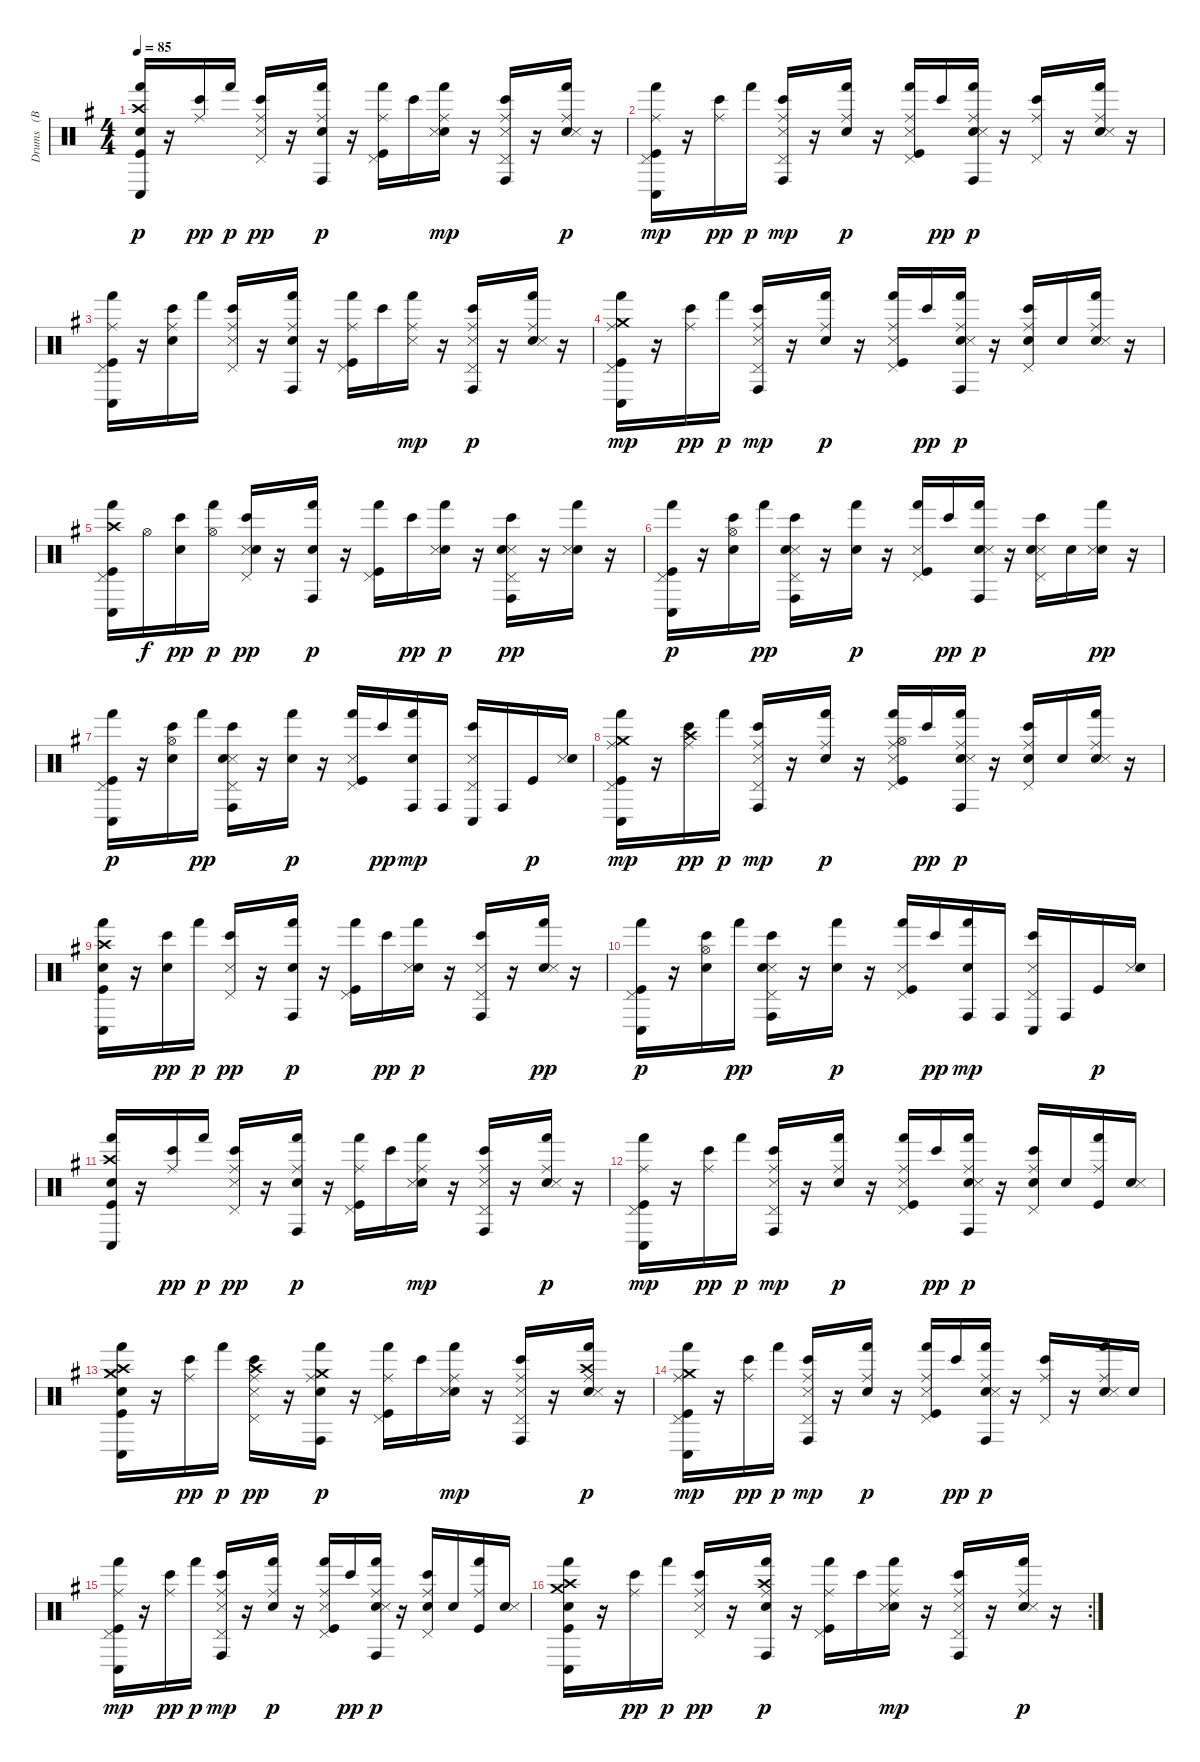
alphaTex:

\track ("Drums   (BB)" "Drums   (B") {instrument percussion}
\staff {score}
\articulation defaults
\ts (4 4)
\tempo 85
\clef neutral
\ks eminor
("Kick (hit)" "Snare (hit) 2" "Crash high (hit)" "Hand (hit)" "Conga low (hit)").16{dy p} r.16 ("Ride (middle)" "Bongo High (hit)").16{dy pp} "Hand (hit)".16{dy p} ("Pedal Hi-Hat (hit)" "Snare (side stick) 3" "Ride (middle)" "Bongo High (hit)").16{dy pp} r.16 ("Snare (hit) 2" "Ride (middle)" "Hand (hit)" "Conga high (hit)").16{dy p} r.16 ("Kick (hit)" "Pedal Hi-Hat (hit)" "Ride (middle)" "Hand (hit)").16 "Bongo High (hit)".16 ("Snare (hit) 2" "Snare (side stick) 3" "Ride (middle)" "Hand (hit)").16{dy mp} r.16 ("Pedal Hi-Hat (hit)" "Snare (side stick) 3" "Ride (middle)" "Bongo High (hit)" "Conga high (hit)").16 r.16 ("Snare (hit) 2" "Snare (side stick) 3" "Ride (middle)" "Hand (hit)").16{dy p} r.16 |
("Kick (hit)" "Pedal Hi-Hat (hit)" "Ride (middle)" "Hand (hit)" "Conga low (hit)").16{dy mp} r.16 ("Ride (middle)" "Bongo High (hit)").16{dy pp} "Hand (hit)".16{dy p} ("Pedal Hi-Hat (hit)" "Snare (side stick) 3" "Ride (middle)" "Bongo High (hit)" "Conga high (hit)").16{dy mp} r.16 ("Snare (hit) 2" "Ride (middle)" "Hand (hit)").16{dy p} r.16 ("Kick (hit)" "Pedal Hi-Hat (hit)" "Snare (side stick) 3" "Ride (middle)" "Hand (hit)").16 "Bongo High (hit)".16{dy pp} ("Snare (hit) 2" "Snare (side stick) 3" "Ride (middle)" "Hand (hit)" "Conga high (hit)").16{dy p} r.16 ("Pedal Hi-Hat (hit)" "Ride (middle)" "Bongo High (hit)").16 r.16 ("Snare (hit) 2" "Snare (side stick) 3" "Ride (middle)" "Hand (hit)").16 r.16 |
("Kick (hit)" "Pedal Hi-Hat (hit)" "Ride (middle)" "Hand (hit)" "Conga low (hit)").16 r.16 ("Snare (hit) 2" "Ride (middle)" "Bongo High (hit)").16 "Hand (hit)".16 ("Pedal Hi-Hat (hit)" "Snare (side stick) 3" "Ride (middle)" "Bongo High (hit)").16 r.16 ("Snare (hit) 2" "Ride (middle)" "Hand (hit)" "Conga high (hit)").16 r.16 ("Kick (hit)" "Pedal Hi-Hat (hit)" "Ride (middle)" "Hand (hit)").16 "Bongo High (hit)".16 ("Snare (side stick) 3" "Ride (middle)" "Hand (hit)").16{dy mp} r.16 ("Pedal Hi-Hat (hit)" "Snare (side stick) 3" "Ride (middle)" "Bongo High (hit)" "Conga high (hit)").16{dy p} r.16 ("Snare (hit) 2" "Snare (side stick) 3" "Ride (middle)" "Hand (hit)").16 r.16 |
("Kick (hit)" "Pedal Hi-Hat (hit)" "Ride (middle)" "Hand (hit)" "Conga low (hit)" "Crash medium (hit)").16{dy mp} r.16 ("Ride (middle)" "Bongo High (hit)").16{dy pp} "Hand (hit)".16{dy p} ("Pedal Hi-Hat (hit)" "Snare (side stick) 3" "Ride (middle)" "Bongo High (hit)" "Conga high (hit)").16{dy mp} r.16 ("Snare (hit) 2" "Ride (middle)" "Hand (hit)").16{dy p} r.16 ("Kick (hit)" "Pedal Hi-Hat (hit)" "Snare (side stick) 3" "Ride (middle)" "Hand (hit)").16 "Bongo High (hit)".16{dy pp} ("Snare (hit) 2" "Snare (side stick) 3" "Ride (middle)" "Hand (hit)" "Conga high (hit)").16{dy p} r.16 ("Snare (hit) 2" "Pedal Hi-Hat (hit)" "Ride (middle)" "Bongo High (hit)").16 "Snare (hit) 2".16 ("Snare (hit) 2" "Snare (side stick) 3" "Ride (middle)" "Hand (hit)").16 r.16 |
("Kick (hit)" "Pedal Hi-Hat (hit)" "Hand (hit)" "Conga low (hit)" "Crash high (hit)").16 "Hi-Hat (open)".16{dy f} ("Snare (hit) 2" "Bongo High (hit)").16{dy pp} ("Hand (hit)" "Hi-Hat (open)").16{dy p} ("Pedal Hi-Hat (hit)" "Snare (side stick) 3" "Bongo High (hit)" "Hand Clap (hit)").16{dy pp} r.16 ("Snare (hit) 2" "Hand (hit)" "Conga high (hit)").16{dy p} r.16 ("Kick (hit)" "Pedal Hi-Hat (hit)" "Hand (hit)").16 "Bongo High (hit)".16{dy pp} ("Snare (hit) 2" "Snare (side stick) 3" "Hand (hit)").16{dy p} r.16 ("Pedal Hi-Hat (hit)" "Snare (side stick) 3" "Bongo High (hit)" "Conga high (hit)" "Hand Clap (hit)").16{dy pp} r.16 ("Snare (hit) 2" "Snare (side stick) 3" "Hand (hit)").16 r.16 |
("Kick (hit)" "Pedal Hi-Hat (hit)" "Hand (hit)" "Conga low (hit)").16{dy p} r.16 ("Snare (hit) 2" "Hi-Hat (open)" "Bongo High (hit)").16 "Hand (hit)".16{dy pp} ("Pedal Hi-Hat (hit)" "Snare (side stick) 3" "Bongo High (hit)" "Conga high (hit)" "Hand Clap (hit)").16 r.16 ("Snare (hit) 2" "Hand (hit)").16{dy p} r.16 ("Kick (hit)" "Pedal Hi-Hat (hit)" "Snare (side stick) 3" "Hand (hit)").16 "Bongo High (hit)".16{dy pp} ("Snare (hit) 2" "Snare (side stick) 3" "Hand (hit)" "Conga high (hit)").16{dy p} r.16 ("Pedal Hi-Hat (hit)" "Snare (side stick) 3" "Bongo High (hit)" "Hand Clap (hit)").16 "Hand Clap (hit)".16 ("Snare (hit) 2" "Snare (side stick) 3" "Hand (hit)").16{dy pp} r.16 |
("Kick (hit)" "Pedal Hi-Hat (hit)" "Hand (hit)" "Conga low (hit)").16{dy p} r.16 ("Snare (hit) 2" "Hi-Hat (open)" "Bongo High (hit)").16 "Hand (hit)".16{dy pp} ("Pedal Hi-Hat (hit)" "Snare (side stick) 3" "Bongo High (hit)" "Conga high (hit)" "Hand Clap (hit)").16 r.16 ("Snare (hit) 2" "Hand (hit)").16{dy p} r.16 ("Kick (hit)" "Pedal Hi-Hat (hit)" "Snare (side stick) 3" "Hand (hit)").16 "Bongo High (hit)".16{dy pp} ("Snare (hit) 2" "Hand (hit)" "Conga high (hit)").16{dy mp} "Conga high (hit)".16 ("Pedal Hi-Hat (hit)" "Snare (side stick) 3" "Bongo High (hit)" "Conga low (hit)").16 "Conga high (hit)".16 "Kick (hit)".16{dy p} ("Snare (side stick) 3" "Hand Clap (hit)").16 |
("Kick (hit)" "Pedal Hi-Hat (hit)" "Ride (middle)" "Hand (hit)" "Conga low (hit)" "Crash medium (hit)").16{dy mp} r.16 ("Ride (middle)" "Bongo High (hit)" "Crash high (hit)").16{dy pp} "Hand (hit)".16{dy p} ("Pedal Hi-Hat (hit)" "Snare (side stick) 3" "Ride (middle)" "Bongo High (hit)" "Conga high (hit)").16{dy mp} r.16 ("Snare (hit) 2" "Ride (middle)" "Hand (hit)").16{dy p} r.16 ("Kick (hit)" "Pedal Hi-Hat (hit)" "Snare (side stick) 3" "Ride (middle)" "Hand (hit)" "Hi-Hat (open)").16 "Bongo High (hit)".16{dy pp} ("Snare (hit) 2" "Snare (side stick) 3" "Ride (middle)" "Hand (hit)" "Conga high (hit)").16{dy p} r.16 ("Snare (hit) 2" "Pedal Hi-Hat (hit)" "Ride (middle)" "Bongo High (hit)").16 "Snare (hit) 2".16 ("Snare (hit) 2" "Snare (side stick) 3" "Ride (middle)" "Hand (hit)").16 r.16 |
("Kick (hit)" "Crash high (hit)" "Hand (hit)" "Hand Clap (hit)" "Conga low (hit)").16 r.16 ("Snare (hit) 2" "Bongo High (hit)").16{dy pp} "Hand (hit)".16{dy p} ("Pedal Hi-Hat (hit)" "Snare (side stick) 3" "Bongo High (hit)").16{dy pp} r.16 ("Snare (hit) 2" "Hand (hit)" "Conga high (hit)").16{dy p} r.16 ("Kick (hit)" "Pedal Hi-Hat (hit)" "Hand (hit)").16 "Bongo High (hit)".16{dy pp} ("Snare (hit) 2" "Snare (side stick) 3" "Hand (hit)").16{dy p} r.16 ("Pedal Hi-Hat (hit)" "Snare (side stick) 3" "Bongo High (hit)" "Conga high (hit)").16 r.16 ("Snare (hit) 2" "Snare (side stick) 3" "Hand (hit)").16{dy pp} r.16 |
("Kick (hit)" "Pedal Hi-Hat (hit)" "Hand (hit)" "Conga low (hit)").16{dy p} r.16 ("Snare (hit) 2" "Hi-Hat (open)" "Bongo High (hit)").16 "Hand (hit)".16{dy pp} ("Pedal Hi-Hat (hit)" "Snare (side stick) 3" "Bongo High (hit)" "Conga high (hit)" "Hand Clap (hit)").16 r.16 ("Snare (hit) 2" "Hand (hit)").16{dy p} r.16 ("Kick (hit)" "Pedal Hi-Hat (hit)" "Snare (side stick) 3" "Hand (hit)").16 "Bongo High (hit)".16{dy pp} ("Snare (hit) 2" "Hand (hit)" "Conga high (hit)").16{dy mp} "Conga high (hit)".16 ("Pedal Hi-Hat (hit)" "Snare (side stick) 3" "Bongo High (hit)" "Conga low (hit)").16 "Conga high (hit)".16 "Kick (hit)".16{dy p} ("Snare (side stick) 3" "Hand Clap (hit)").16 |
("Kick (hit)" "Snare (hit) 2" "Crash high (hit)" "Hand (hit)" "Conga low (hit)").16 r.16 ("Ride (middle)" "Bongo High (hit)").16{dy pp} "Hand (hit)".16{dy p} ("Pedal Hi-Hat (hit)" "Snare (side stick) 3" "Ride (middle)" "Bongo High (hit)").16{dy pp} r.16 ("Snare (hit) 2" "Ride (middle)" "Hand (hit)" "Conga high (hit)").16{dy p} r.16 ("Kick (hit)" "Pedal Hi-Hat (hit)" "Ride (middle)" "Hand (hit)").16 "Bongo High (hit)".16 ("Snare (hit) 2" "Snare (side stick) 3" "Ride (middle)" "Hand (hit)").16{dy mp} r.16 ("Pedal Hi-Hat (hit)" "Snare (side stick) 3" "Ride (middle)" "Bongo High (hit)" "Conga high (hit)").16 r.16 ("Snare (hit) 2" "Snare (side stick) 3" "Ride (middle)" "Hand (hit)").16{dy p} r.16 |
("Kick (hit)" "Pedal Hi-Hat (hit)" "Ride (middle)" "Hand (hit)" "Conga low (hit)").16{dy mp} r.16 ("Ride (middle)" "Bongo High (hit)").16{dy pp} "Hand (hit)".16{dy p} ("Pedal Hi-Hat (hit)" "Snare (side stick) 3" "Ride (middle)" "Bongo High (hit)" "Conga high (hit)").16{dy mp} r.16 ("Snare (hit) 2" "Ride (middle)" "Hand (hit)").16{dy p} r.16 ("Kick (hit)" "Pedal Hi-Hat (hit)" "Snare (side stick) 3" "Ride (middle)" "Hand (hit)").16 "Bongo High (hit)".16{dy pp} ("Snare (hit) 2" "Snare (side stick) 3" "Ride (middle)" "Hand (hit)" "Conga high (hit)").16{dy p} r.16 ("Snare (hit) 2" "Pedal Hi-Hat (hit)" "Ride (middle)" "Bongo High (hit)").16 "Snare (hit) 2".16 ("Kick (hit)" "Ride (middle)" "Hand (hit)").16 ("Snare (hit) 2" "Snare (side stick) 3").16 |
("Kick (hit)" "Snare (hit) 2" "Crash high (hit)" "Hand (hit)" "Conga low (hit)" "Crash medium (hit)").16 r.16 ("Ride (middle)" "Bongo High (hit)").16{dy pp} "Hand (hit)".16{dy p} ("Pedal Hi-Hat (hit)" "Snare (side stick) 3" "Ride (middle)" "Bongo High (hit)" "Crash high (hit)").16{dy pp} r.16 ("Snare (hit) 2" "Ride (middle)" "Hand (hit)" "Conga high (hit)" "Crash medium (hit)").16{dy p} r.16 ("Kick (hit)" "Pedal Hi-Hat (hit)" "Ride (middle)" "Hand (hit)").16 "Bongo High (hit)".16 ("Snare (hit) 2" "Snare (side stick) 3" "Ride (middle)" "Hand (hit)").16{dy mp} r.16 ("Pedal Hi-Hat (hit)" "Snare (side stick) 3" "Ride (middle)" "Bongo High (hit)" "Conga high (hit)").16 r.16 ("Snare (hit) 2" "Snare (side stick) 3" "Ride (middle)" "Hand (hit)" "Crash high (hit)").16{dy p} r.16 |
("Kick (hit)" "Pedal Hi-Hat (hit)" "Ride (middle)" "Hand (hit)" "Conga low (hit)" "Crash medium (hit)").16{dy mp} r.16 ("Ride (middle)" "Bongo High (hit)").16{dy pp} "Hand (hit)".16{dy p} ("Pedal Hi-Hat (hit)" "Snare (side stick) 3" "Ride (middle)" "Bongo High (hit)" "Conga high (hit)").16{dy mp} r.16 ("Snare (hit) 2" "Ride (middle)" "Hand (hit)").16{dy p} r.16 ("Kick (hit)" "Pedal Hi-Hat (hit)" "Snare (side stick) 3" "Ride (middle)" "Hand (hit)").16 "Bongo High (hit)".16{dy pp} ("Snare (hit) 2" "Snare (side stick) 3" "Ride (middle)" "Hand (hit)" "Conga high (hit)").16{dy p} r.16 ("Pedal Hi-Hat (hit)" "Ride (middle)" "Bongo High (hit)").16 r.16 ("Snare (hit) 2" "Snare (side stick) 3" "Ride (middle)" "Hand (hit)").16 "Snare (hit) 2".16 |
("Kick (hit)" "Pedal Hi-Hat (hit)" "Ride (middle)" "Hand (hit)" "Conga low (hit)").16{dy mp} r.16 ("Ride (middle)" "Bongo High (hit)").16{dy pp} "Hand (hit)".16{dy p} ("Pedal Hi-Hat (hit)" "Snare (side stick) 3" "Ride (middle)" "Bongo High (hit)" "Conga high (hit)").16{dy mp} r.16 ("Snare (hit) 2" "Ride (middle)" "Hand (hit)").16{dy p} r.16 ("Kick (hit)" "Pedal Hi-Hat (hit)" "Snare (side stick) 3" "Ride (middle)" "Hand (hit)").16 "Bongo High (hit)".16{dy pp} ("Snare (hit) 2" "Snare (side stick) 3" "Ride (middle)" "Hand (hit)" "Conga high (hit)").16{dy p} r.16 ("Snare (hit) 2" "Pedal Hi-Hat (hit)" "Ride (middle)" "Bongo High (hit)").16 "Snare (hit) 2".16 ("Kick (hit)" "Ride (middle)" "Hand (hit)").16 ("Snare (hit) 2" "Snare (side stick) 3").16 |
\rc 2
("Kick (hit)" "Snare (hit) 2" "Crash high (hit)" "Hand (hit)" "Conga low (hit)" "Crash medium (hit)").16 r.16 ("Ride (middle)" "Bongo High (hit)").16{dy pp} "Hand (hit)".16{dy p} ("Pedal Hi-Hat (hit)" "Snare (side stick) 3" "Ride (middle)" "Bongo High (hit)").16{dy pp} r.16 ("Snare (hit) 2" "Ride (middle)" "Hand (hit)" "Conga high (hit)" "Crash high (hit)").16{dy p} r.16 ("Kick (hit)" "Pedal Hi-Hat (hit)" "Ride (middle)" "Hand (hit)").16 "Bongo High (hit)".16 ("Snare (hit) 2" "Snare (side stick) 3" "Ride (middle)" "Hand (hit)").16{dy mp} r.16 ("Pedal Hi-Hat (hit)" "Snare (side stick) 3" "Ride (middle)" "Bongo High (hit)" "Conga high (hit)").16 r.16 ("Snare (hit) 2" "Snare (side stick) 3" "Ride (middle)" "Hand (hit)").16{dy p} r.16
